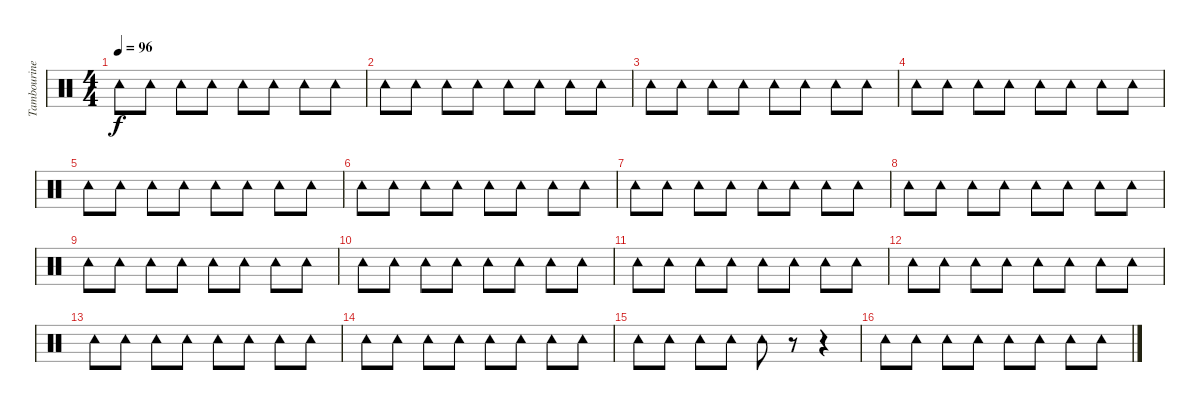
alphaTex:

\track ("Tambourine" "Tambourine") {instrument percussion}
\staff {score}
\articulation defaults
\ts (4 4)
\tempo 96
\clef neutral
\ks c "Tambourine (hit)".8{dy f} "Tambourine (hit)".8 "Tambourine (hit)".8 "Tambourine (hit)".8 "Tambourine (hit)".8 "Tambourine (hit)".8 "Tambourine (hit)".8 "Tambourine (hit)".8
|
"Tambourine (hit)".8 "Tambourine (hit)".8 "Tambourine (hit)".8 "Tambourine (hit)".8 "Tambourine (hit)".8 "Tambourine (hit)".8 "Tambourine (hit)".8 "Tambourine (hit)".8 |
"Tambourine (hit)".8 "Tambourine (hit)".8 "Tambourine (hit)".8 "Tambourine (hit)".8 "Tambourine (hit)".8 "Tambourine (hit)".8 "Tambourine (hit)".8 "Tambourine (hit)".8 |
"Tambourine (hit)".8 "Tambourine (hit)".8 "Tambourine (hit)".8 "Tambourine (hit)".8 "Tambourine (hit)".8 "Tambourine (hit)".8 "Tambourine (hit)".8 "Tambourine (hit)".8 |
"Tambourine (hit)".8 "Tambourine (hit)".8 "Tambourine (hit)".8 "Tambourine (hit)".8 "Tambourine (hit)".8 "Tambourine (hit)".8 "Tambourine (hit)".8 "Tambourine (hit)".8 |
"Tambourine (hit)".8 "Tambourine (hit)".8 "Tambourine (hit)".8 "Tambourine (hit)".8 "Tambourine (hit)".8 "Tambourine (hit)".8 "Tambourine (hit)".8 "Tambourine (hit)".8 |
"Tambourine (hit)".8 "Tambourine (hit)".8 "Tambourine (hit)".8 "Tambourine (hit)".8 "Tambourine (hit)".8 "Tambourine (hit)".8 "Tambourine (hit)".8 "Tambourine (hit)".8 |
"Tambourine (hit)".8 "Tambourine (hit)".8 "Tambourine (hit)".8 "Tambourine (hit)".8 "Tambourine (hit)".8 "Tambourine (hit)".8 "Tambourine (hit)".8 "Tambourine (hit)".8 |
"Tambourine (hit)".8 "Tambourine (hit)".8 "Tambourine (hit)".8 "Tambourine (hit)".8 "Tambourine (hit)".8 "Tambourine (hit)".8 "Tambourine (hit)".8 "Tambourine (hit)".8 |
"Tambourine (hit)".8 "Tambourine (hit)".8 "Tambourine (hit)".8 "Tambourine (hit)".8 "Tambourine (hit)".8 "Tambourine (hit)".8 "Tambourine (hit)".8 "Tambourine (hit)".8 |
"Tambourine (hit)".8 "Tambourine (hit)".8 "Tambourine (hit)".8 "Tambourine (hit)".8 "Tambourine (hit)".8 "Tambourine (hit)".8 "Tambourine (hit)".8 "Tambourine (hit)".8 |
"Tambourine (hit)".8 "Tambourine (hit)".8 "Tambourine (hit)".8 "Tambourine (hit)".8 "Tambourine (hit)".8 "Tambourine (hit)".8 "Tambourine (hit)".8 "Tambourine (hit)".8 |
"Tambourine (hit)".8 "Tambourine (hit)".8 "Tambourine (hit)".8 "Tambourine (hit)".8 "Tambourine (hit)".8 "Tambourine (hit)".8 "Tambourine (hit)".8 "Tambourine (hit)".8 |
"Tambourine (hit)".8 "Tambourine (hit)".8 "Tambourine (hit)".8 "Tambourine (hit)".8 "Tambourine (hit)".8 "Tambourine (hit)".8 "Tambourine (hit)".8 "Tambourine (hit)".8 |
"Tambourine (hit)".8 "Tambourine (hit)".8 "Tambourine (hit)".8 "Tambourine (hit)".8 "Tambourine (hit)".8 r.8 r.4 |
"Tambourine (hit)".8 "Tambourine (hit)".8 "Tambourine (hit)".8 "Tambourine (hit)".8 "Tambourine (hit)".8 "Tambourine (hit)".8 "Tambourine (hit)".8 "Tambourine (hit)".8
